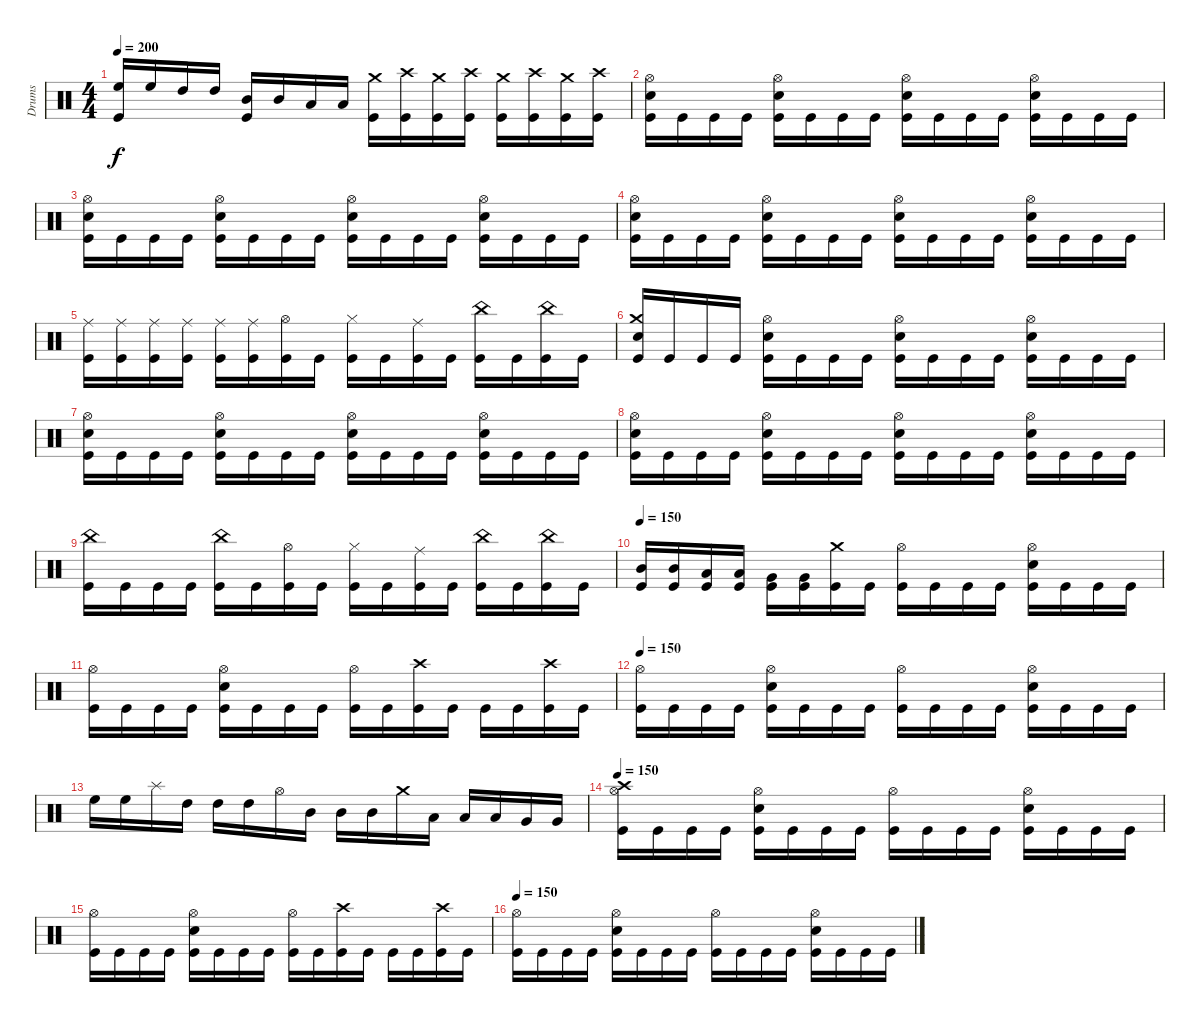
\track ("Drums" "Drums") {instrument percussion}
\staff {score}
\articulation defaults
\ts (4 4)
\tempo 200
\clef neutral
\ks c
("High Floor Tom (hit)" "Kick (hit)").16{dy f} "High Floor Tom (hit)".16 "High Tom (hit)".16 "High Tom (hit)".16 ("Mid Tom (hit)" "Kick (hit)").16 "Mid Tom (hit)".16 "Low Tom (hit)".16 "Low Tom (hit)".16 ("Crash medium (hit)" "Kick (hit)").16 ("Crash high (hit)" "Kick (hit)").16 ("Crash medium (hit)" "Kick (hit)").16 ("Crash high (hit)" "Kick (hit)").16 ("Crash medium (hit)" "Kick (hit)").16 ("Crash high (hit)" "Kick (hit)").16 ("Crash medium (hit)" "Kick (hit)").16 ("Crash high (hit)" "Kick (hit)").16 |
("Electric Snare (hit)" "Hi-Hat (open)" "Kick (hit)").16 "Kick (hit)".16 "Kick (hit)".16 "Kick (hit)".16 ("Electric Snare (hit)" "Hi-Hat (open)" "Kick (hit)").16 "Kick (hit)".16 "Kick (hit)".16 "Kick (hit)".16 ("Electric Snare (hit)" "Hi-Hat (open)" "Kick (hit)").16 "Kick (hit)".16 "Kick (hit)".16 "Kick (hit)".16 ("Electric Snare (hit)" "Hi-Hat (open)" "Kick (hit)").16 "Kick (hit)".16 "Kick (hit)".16 "Kick (hit)".16 |
("Electric Snare (hit)" "Hi-Hat (open)" "Kick (hit)").16 "Kick (hit)".16 "Kick (hit)".16 "Kick (hit)".16 ("Electric Snare (hit)" "Hi-Hat (open)" "Kick (hit)").16 "Kick (hit)".16 "Kick (hit)".16 "Kick (hit)".16 ("Electric Snare (hit)" "Hi-Hat (open)" "Kick (hit)").16 "Kick (hit)".16 "Kick (hit)".16 "Kick (hit)".16 ("Electric Snare (hit)" "Hi-Hat (open)" "Kick (hit)").16 "Kick (hit)".16 "Kick (hit)".16 "Kick (hit)".16 |
("Electric Snare (hit)" "Hi-Hat (open)" "Kick (hit)").16 "Kick (hit)".16 "Kick (hit)".16 "Kick (hit)".16 ("Electric Snare (hit)" "Hi-Hat (open)" "Kick (hit)").16 "Kick (hit)".16 "Kick (hit)".16 "Kick (hit)".16 ("Electric Snare (hit)" "Hi-Hat (open)" "Kick (hit)").16 "Kick (hit)".16 "Kick (hit)".16 "Kick (hit)".16 ("Electric Snare (hit)" "Hi-Hat (open)" "Kick (hit)").16 "Kick (hit)".16 "Kick (hit)".16 "Kick (hit)".16 |
("Ride (middle)" "Kick (hit)").16 ("Ride (middle)" "Kick (hit)").16 ("Ride (middle)" "Kick (hit)").16 ("Ride (middle)" "Kick (hit)").16 ("Ride (middle)" "Kick (hit)").16 ("Ride (middle)" "Kick (hit)").16 ("Hi-Hat (open)" "Kick (hit)").16 "Kick (hit)".16 ("Hi-Hat (closed)" "Kick (hit)").16 "Kick (hit)".16 ("Ride (middle)" "Kick (hit)").16 "Kick (hit)".16 ("China (hit)" "Kick (hit)").16 "Kick (hit)".16 ("China (hit)" "Kick (hit)").16 "Kick (hit)".16 |
("Electric Snare (hit)" "Crash medium (hit)" "Kick (hit)").16 "Kick (hit)".16 "Kick (hit)".16 "Kick (hit)".16 ("Electric Snare (hit)" "Hi-Hat (open)" "Kick (hit)").16 "Kick (hit)".16 "Kick (hit)".16 "Kick (hit)".16 ("Electric Snare (hit)" "Hi-Hat (open)" "Kick (hit)").16 "Kick (hit)".16 "Kick (hit)".16 "Kick (hit)".16 ("Electric Snare (hit)" "Hi-Hat (open)" "Kick (hit)").16 "Kick (hit)".16 "Kick (hit)".16 "Kick (hit)".16 |
("Electric Snare (hit)" "Hi-Hat (open)" "Kick (hit)").16 "Kick (hit)".16 "Kick (hit)".16 "Kick (hit)".16 ("Electric Snare (hit)" "Hi-Hat (open)" "Kick (hit)").16 "Kick (hit)".16 "Kick (hit)".16 "Kick (hit)".16 ("Electric Snare (hit)" "Hi-Hat (open)" "Kick (hit)").16 "Kick (hit)".16 "Kick (hit)".16 "Kick (hit)".16 ("Electric Snare (hit)" "Hi-Hat (open)" "Kick (hit)").16 "Kick (hit)".16 "Kick (hit)".16 "Kick (hit)".16 |
("Electric Snare (hit)" "Hi-Hat (open)" "Kick (hit)").16 "Kick (hit)".16 "Kick (hit)".16 "Kick (hit)".16 ("Electric Snare (hit)" "Hi-Hat (open)" "Kick (hit)").16 "Kick (hit)".16 "Kick (hit)".16 "Kick (hit)".16 ("Electric Snare (hit)" "Hi-Hat (open)" "Kick (hit)").16 "Kick (hit)".16 "Kick (hit)".16 "Kick (hit)".16 ("Electric Snare (hit)" "Hi-Hat (open)" "Kick (hit)").16 "Kick (hit)".16 "Kick (hit)".16 "Kick (hit)".16 |
("China (hit)" "Kick (hit)").16 "Kick (hit)".16 "Kick (hit)".16 "Kick (hit)".16 ("China (hit)" "Kick (hit)").16 "Kick (hit)".16 ("Hi-Hat (open)" "Kick (hit)").16 "Kick (hit)".16 ("Hi-Hat (closed)" "Kick (hit)").16 "Kick (hit)".16 ("Ride (middle)" "Kick (hit)").16 "Kick (hit)".16 ("China (hit)" "Kick (hit)").16 "Kick (hit)".16 ("China (hit)" "Kick (hit)").16 "Kick (hit)".16 |
\tempo 150
("Mid Tom (hit)" "Kick (hit)").16 ("Mid Tom (hit)" "Kick (hit)").16 ("Low Tom (hit)" "Kick (hit)").16 ("Low Tom (hit)" "Kick (hit)").16 ("Very Low Tom (hit)" "Kick (hit)").16 ("Very Low Tom (hit)" "Kick (hit)").16 ("Crash medium (hit)" "Kick (hit)").16 "Kick (hit)".16 ("Hi-Hat (open)" "Kick (hit)").16 "Kick (hit)".16 "Kick (hit)".16 "Kick (hit)".16 ("Hi-Hat (open)" "Electric Snare (hit)" "Kick (hit)").16 "Kick (hit)".16 "Kick (hit)".16 "Kick (hit)".16 |
("Hi-Hat (open)" "Kick (hit)").16 "Kick (hit)".16 "Kick (hit)".16 "Kick (hit)".16 ("Hi-Hat (open)" "Electric Snare (hit)" "Kick (hit)").16 "Kick (hit)".16 "Kick (hit)".16 "Kick (hit)".16 ("Hi-Hat (open)" "Kick (hit)").16 "Kick (hit)".16 ("Kick (hit)" "Crash high (hit)").16 "Kick (hit)".16 "Kick (hit)".16 "Kick (hit)".16 ("Kick (hit)" "Crash high (hit)").16 "Kick (hit)".16 |
\tempo 150
("Hi-Hat (open)" "Kick (hit)").16 "Kick (hit)".16 "Kick (hit)".16 "Kick (hit)".16 ("Hi-Hat (open)" "Electric Snare (hit)" "Kick (hit)").16 "Kick (hit)".16 "Kick (hit)".16 "Kick (hit)".16 ("Hi-Hat (open)" "Kick (hit)").16 "Kick (hit)".16 "Kick (hit)".16 "Kick (hit)".16 ("Hi-Hat (open)" "Electric Snare (hit)" "Kick (hit)").16 "Kick (hit)".16 "Kick (hit)".16 "Kick (hit)".16 |
"High Floor Tom (hit)".16 "High Floor Tom (hit)".16 "Splash (hit)".16 "High Tom (hit)".16 "High Tom (hit)".16 "High Tom (hit)".16 "Hi-Hat (open)".16 "Mid Tom (hit)".16 "Mid Tom (hit)".16 "Mid Tom (hit)".16 "Crash medium (hit)".16 "Low Tom (hit)".16 "Low Tom (hit)".16 "Low Tom (hit)".16 "Very Low Tom (hit)".16 "Very Low Tom (hit)".16 |
\tempo 150
("Crash high (hit)" "Hi-Hat (open)" "Kick (hit)").16 "Kick (hit)".16 "Kick (hit)".16 "Kick (hit)".16 ("Hi-Hat (open)" "Electric Snare (hit)" "Kick (hit)").16 "Kick (hit)".16 "Kick (hit)".16 "Kick (hit)".16 ("Hi-Hat (open)" "Kick (hit)").16 "Kick (hit)".16 "Kick (hit)".16 "Kick (hit)".16 ("Hi-Hat (open)" "Electric Snare (hit)" "Kick (hit)").16 "Kick (hit)".16 "Kick (hit)".16 "Kick (hit)".16 |
("Hi-Hat (open)" "Kick (hit)").16 "Kick (hit)".16 "Kick (hit)".16 "Kick (hit)".16 ("Hi-Hat (open)" "Electric Snare (hit)" "Kick (hit)").16 "Kick (hit)".16 "Kick (hit)".16 "Kick (hit)".16 ("Hi-Hat (open)" "Kick (hit)").16 "Kick (hit)".16 ("Kick (hit)" "Crash high (hit)").16 "Kick (hit)".16 "Kick (hit)".16 "Kick (hit)".16 ("Kick (hit)" "Crash high (hit)").16 "Kick (hit)".16 |
\tempo 150
("Hi-Hat (open)" "Kick (hit)").16 "Kick (hit)".16 "Kick (hit)".16 "Kick (hit)".16 ("Hi-Hat (open)" "Electric Snare (hit)" "Kick (hit)").16 "Kick (hit)".16 "Kick (hit)".16 "Kick (hit)".16 ("Hi-Hat (open)" "Kick (hit)").16 "Kick (hit)".16 "Kick (hit)".16 "Kick (hit)".16 ("Hi-Hat (open)" "Electric Snare (hit)" "Kick (hit)").16 "Kick (hit)".16 "Kick (hit)".16 "Kick (hit)".16
